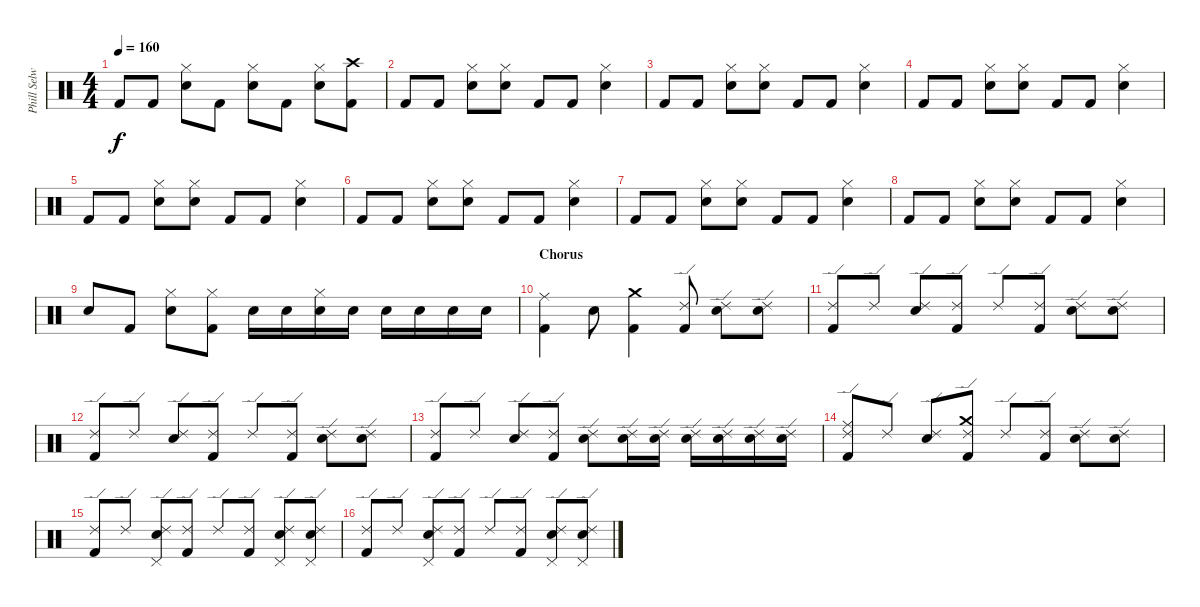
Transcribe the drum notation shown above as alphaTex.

\track ("Phill Selway" "Phill Selw") {instrument percussion}
\staff {score}
\articulation defaults
\ts (4 4)
\tempo 160
\clef neutral
\ks c "Kick (hit) 2".8{dy f} "Kick (hit) 2".8
("Snare (hit) 2" "Hi-Hat (closed)").8 "Kick (hit) 2".8 ("Snare (hit) 2" "Hi-Hat (closed)").8 "Kick (hit) 2".8 ("Snare (hit) 2" "Hi-Hat (closed)").8 ("Kick (hit) 2" "Crash high (hit)").8 |
"Kick (hit) 2".8 "Kick (hit) 2".8 ("Snare (hit) 2" "Hi-Hat (closed)").8 ("Snare (hit) 2" "Hi-Hat (closed)").8 "Kick (hit) 2".8 "Kick (hit) 2".8 ("Snare (hit) 2" "Hi-Hat (closed)").4 |
"Kick (hit) 2".8 "Kick (hit) 2".8 ("Snare (hit) 2" "Hi-Hat (closed)").8 ("Snare (hit) 2" "Hi-Hat (closed)").8 "Kick (hit) 2".8 "Kick (hit) 2".8 ("Snare (hit) 2" "Hi-Hat (closed)").4 |
"Kick (hit) 2".8 "Kick (hit) 2".8 ("Snare (hit) 2" "Hi-Hat (closed)").8 ("Snare (hit) 2" "Hi-Hat (closed)").8 "Kick (hit) 2".8 "Kick (hit) 2".8 ("Snare (hit) 2" "Hi-Hat (closed)").4 |
"Kick (hit) 2".8 "Kick (hit) 2".8 ("Snare (hit) 2" "Hi-Hat (closed)").8 ("Snare (hit) 2" "Hi-Hat (closed)").8 "Kick (hit) 2".8 "Kick (hit) 2".8 ("Snare (hit) 2" "Hi-Hat (closed)").4 |
"Kick (hit) 2".8 "Kick (hit) 2".8 ("Snare (hit) 2" "Hi-Hat (closed)").8 ("Snare (hit) 2" "Hi-Hat (closed)").8 "Kick (hit) 2".8 "Kick (hit) 2".8 ("Snare (hit) 2" "Hi-Hat (closed)").4 |
"Kick (hit) 2".8 "Kick (hit) 2".8 ("Snare (hit) 2" "Hi-Hat (closed)").8 ("Snare (hit) 2" "Hi-Hat (closed)").8 "Kick (hit) 2".8 "Kick (hit) 2".8 ("Snare (hit) 2" "Hi-Hat (closed)").4 |
"Kick (hit) 2".8 "Kick (hit) 2".8 ("Snare (hit) 2" "Hi-Hat (closed)").8 ("Snare (hit) 2" "Hi-Hat (closed)").8 "Kick (hit) 2".8 "Kick (hit) 2".8 ("Snare (hit) 2" "Hi-Hat (closed)").4 |
"Snare (hit) 2".8 "Kick (hit) 2".8 ("Snare (hit) 2" "Hi-Hat (closed)").8 ("Kick (hit) 2" "Hi-Hat (closed)").8 "Snare (hit) 2".16 "Snare (hit) 2".16 ("Snare (hit) 2" "Hi-Hat (closed)").16 "Snare (hit) 2".16 "Snare (hit) 2".16 "Snare (hit) 2".16 "Snare (hit) 2".16 "Snare (hit) 2".16 |
\section ("" "Chorus")
("Ride (middle)" "Kick (hit) 2").4 "Snare (hit) 2".8 ("Crash medium (hit)" "Kick (hit) 2").4 ("Kick (hit) 2" "Ride (edge) 2").8 ("Snare (hit) 2" "Ride (edge) 2").8 ("Snare (hit) 2" "Ride (edge) 2").8 |
("Kick (hit) 2" "Ride (edge) 2").8 "Ride (edge) 2".8 ("Snare (hit) 2" "Ride (edge) 2").8 ("Kick (hit) 2" "Ride (edge) 2").8 "Ride (edge) 2".8 ("Kick (hit) 2" "Ride (edge) 2").8 ("Snare (hit) 2" "Ride (edge) 2").8 ("Snare (hit) 2" "Ride (edge) 2").8 |
("Kick (hit) 2" "Ride (edge) 2").8 "Ride (edge) 2".8 ("Snare (hit) 2" "Ride (edge) 2").8 ("Kick (hit) 2" "Ride (edge) 2").8 "Ride (edge) 2".8 ("Kick (hit) 2" "Ride (edge) 2").8 ("Snare (hit) 2" "Ride (edge) 2").8 ("Snare (hit) 2" "Ride (edge) 2").8 |
("Kick (hit) 2" "Ride (edge) 2").8 "Ride (edge) 2".8 ("Snare (hit) 2" "Ride (edge) 2").8 ("Kick (hit) 2" "Ride (edge) 2").8 ("Snare (hit) 2" "Ride (edge) 2").8 ("Snare (hit) 2" "Ride (edge) 2").16 ("Snare (hit) 2" "Ride (edge) 2").16 ("Snare (hit) 2" "Ride (edge) 2").16 ("Snare (hit) 2" "Ride (edge) 2").16 ("Snare (hit) 2" "Ride (edge) 2").16 ("Snare (hit) 2" "Ride (edge) 2").16 |
("Kick (hit) 2" "Ride (middle)" "Ride (edge) 2").8 "Ride (edge) 2".8 ("Snare (hit) 2" "Ride (edge) 2").8 ("Kick (hit) 2" "Crash medium (hit)" "Ride (edge) 2").8 "Ride (edge) 2".8 ("Kick (hit) 2" "Ride (edge) 2").8 ("Snare (hit) 2" "Ride (edge) 2").8 ("Snare (hit) 2" "Ride (edge) 2").8 |
("Kick (hit) 2" "Ride (edge) 2").8 "Ride (edge) 2".8 ("Snare (hit) 2" "Pedal Hi-Hat (hit)" "Ride (edge) 2").8 ("Kick (hit) 2" "Ride (edge) 2").8 "Ride (edge) 2".8 ("Kick (hit) 2" "Ride (edge) 2").8 ("Snare (hit) 2" "Pedal Hi-Hat (hit)" "Ride (edge) 2").8 ("Snare (hit) 2" "Pedal Hi-Hat (hit)" "Ride (edge) 2").8 |
("Kick (hit) 2" "Ride (edge) 2").8 "Ride (edge) 2".8 ("Snare (hit) 2" "Pedal Hi-Hat (hit)" "Ride (edge) 2").8 ("Kick (hit) 2" "Ride (edge) 2").8 "Ride (edge) 2".8 ("Kick (hit) 2" "Ride (edge) 2").8 ("Snare (hit) 2" "Pedal Hi-Hat (hit)" "Ride (edge) 2").8 ("Snare (hit) 2" "Pedal Hi-Hat (hit)" "Ride (edge) 2").8
